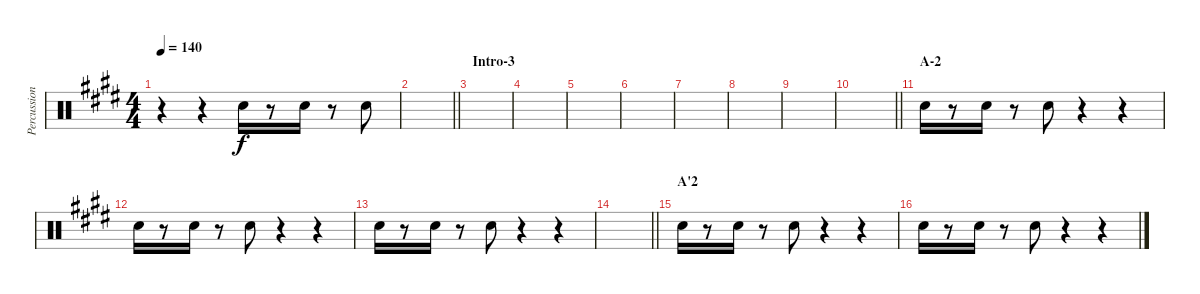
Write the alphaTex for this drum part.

\track ("Percussion" "Percussion") {instrument percussion}
\staff {score}
\articulation defaults
\ts (4 4)
\tempo 140
\clef neutral
\ks e
r.4{dy f} r.4 "Hand Clap (hit)".16 r.8 "Hand Clap (hit)".16 r.8 "Hand Clap (hit)".8 |
\barLineRight lightlight
|
\section ("" "Intro-3")
|
|
|
|
|
|
|
\barLineRight lightlight
|
\section ("" "A-2")
"Hand Clap (hit)".16 r.8 "Hand Clap (hit)".16 r.8 "Hand Clap (hit)".8 r.4 r.4 |
"Hand Clap (hit)".16 r.8 "Hand Clap (hit)".16 r.8 "Hand Clap (hit)".8 r.4 r.4 |
"Hand Clap (hit)".16 r.8 "Hand Clap (hit)".16 r.8 "Hand Clap (hit)".8 r.4 r.4 |
\barLineRight lightlight
|
\section ("" "A'2")
"Hand Clap (hit)".16 r.8 "Hand Clap (hit)".16 r.8 "Hand Clap (hit)".8 r.4 r.4 |
"Hand Clap (hit)".16 r.8 "Hand Clap (hit)".16 r.8 "Hand Clap (hit)".8 r.4 r.4
